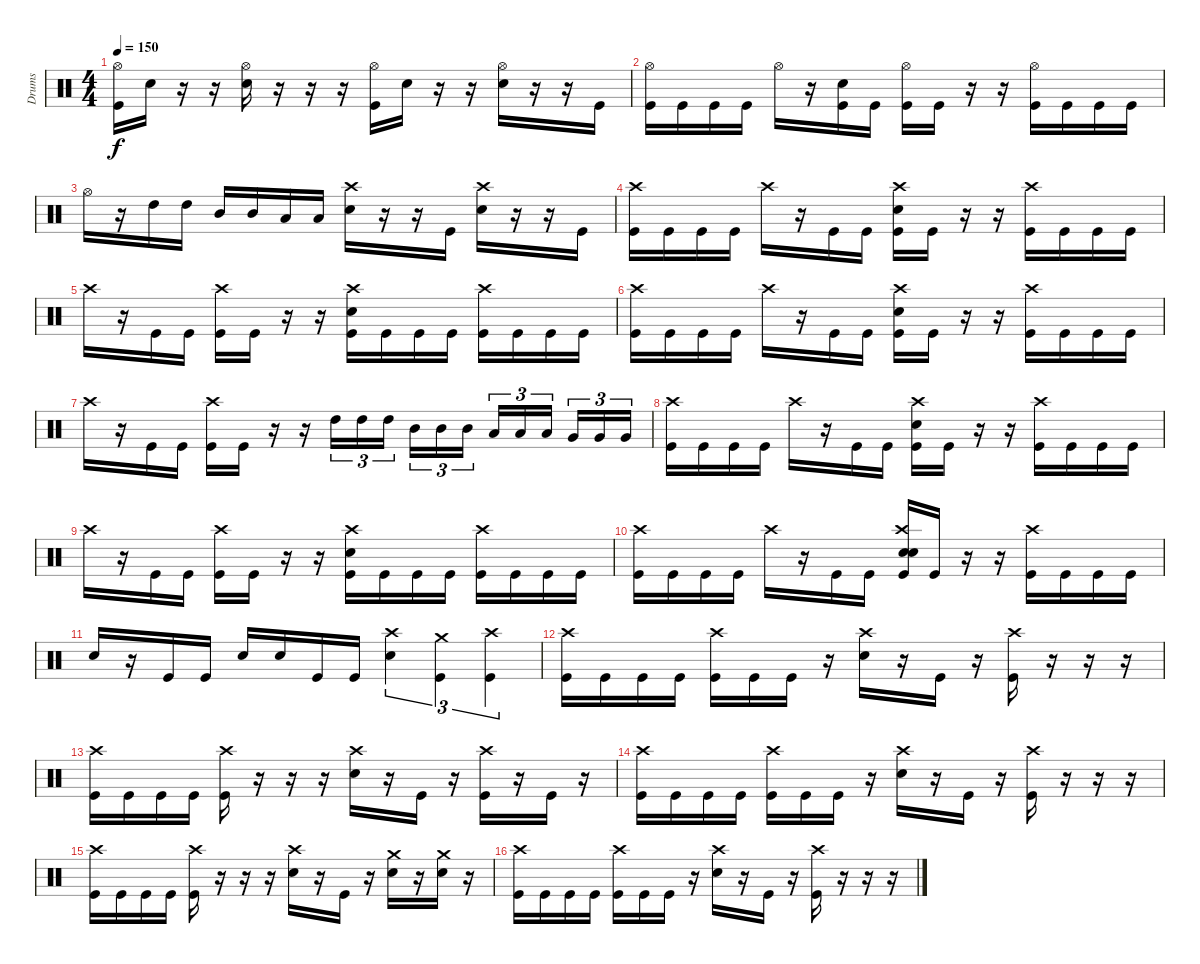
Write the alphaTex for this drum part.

\track ("Drums" "Drums") {instrument percussion}
\staff {score}
\articulation defaults
\ts (4 4)
\tempo 150
\clef neutral
\ks c
("Hi-Hat (open)" "Kick (hit)").16{dy f} "Electric Snare (hit)".16 r.16 r.16 ("Hi-Hat (open)" "Electric Snare (hit)").16 r.16 r.16 r.16 ("Hi-Hat (open)" "Kick (hit)").16 "Electric Snare (hit)".16 r.16 r.16 ("Hi-Hat (open)" "Electric Snare (hit)").16 r.16 r.16 "Kick (hit)".16 |
("Hi-Hat (open)" "Kick (hit)").16 "Kick (hit)".16 "Kick (hit)".16 "Kick (hit)".16 "Hi-Hat (open)".16 r.16 ("Electric Snare (hit)" "Kick (hit)").16 "Kick (hit)".16 ("Hi-Hat (open)" "Kick (hit)").16 "Kick (hit)".16 r.16 r.16 ("Hi-Hat (open)" "Kick (hit)").16 "Kick (hit)".16 "Kick (hit)".16 "Kick (hit)".16 |
"Hi-Hat (open)".16 r.16 "High Tom (hit)".16 "High Tom (hit)".16 "Mid Tom (hit)".16 "Mid Tom (hit)".16 "Low Tom (hit)".16 "Low Tom (hit)".16 ("Crash high (hit)" "Electric Snare (hit)").16 r.16 r.16 "Kick (hit)".16 ("Crash high (hit)" "Electric Snare (hit)").16 r.16 r.16 "Kick (hit)".16 |
("Crash high (hit)" "Kick (hit)").16 "Kick (hit)".16 "Kick (hit)".16 "Kick (hit)".16 "Crash high (hit)".16 r.16 "Kick (hit)".16 "Kick (hit)".16 ("Crash high (hit)" "Electric Snare (hit)" "Kick (hit)").16 "Kick (hit)".16 r.16 r.16 ("Crash high (hit)" "Kick (hit)").16 "Kick (hit)".16 "Kick (hit)".16 "Kick (hit)".16 |
"Crash high (hit)".16 r.16 "Kick (hit)".16 "Kick (hit)".16 ("Crash high (hit)" "Kick (hit)").16 "Kick (hit)".16 r.16 r.16 ("Crash high (hit)" "Electric Snare (hit)" "Kick (hit)").16 "Kick (hit)".16 "Kick (hit)".16 "Kick (hit)".16 ("Crash high (hit)" "Kick (hit)").16 "Kick (hit)".16 "Kick (hit)".16 "Kick (hit)".16 |
("Crash high (hit)" "Kick (hit)").16 "Kick (hit)".16 "Kick (hit)".16 "Kick (hit)".16 "Crash high (hit)".16 r.16 "Kick (hit)".16 "Kick (hit)".16 ("Crash high (hit)" "Electric Snare (hit)" "Kick (hit)").16 "Kick (hit)".16 r.16 r.16 ("Crash high (hit)" "Kick (hit)").16 "Kick (hit)".16 "Kick (hit)".16 "Kick (hit)".16 |
"Crash high (hit)".16 r.16 "Kick (hit)".16 "Kick (hit)".16 ("Crash high (hit)" "Kick (hit)").16 "Kick (hit)".16 r.16 r.16 "High Tom (hit)".16{tu (3 2)} "High Tom (hit)".16{tu (3 2)} "High Tom (hit)".16{tu (3 2)} "Mid Tom (hit)".16{tu (3 2)} "Mid Tom (hit)".16{tu (3 2)} "Mid Tom (hit)".16{tu (3 2)} "Low Tom (hit)".16{tu (3 2)} "Low Tom (hit)".16{tu (3 2)} "Low Tom (hit)".16{tu (3 2)} "Very Low Tom (hit)".16{tu (3 2)} "Very Low Tom (hit)".16{tu (3 2)} "Very Low Tom (hit)".16{tu (3 2)} |
("Crash high (hit)" "Kick (hit)").16 "Kick (hit)".16 "Kick (hit)".16 "Kick (hit)".16 "Crash high (hit)".16 r.16 "Kick (hit)".16 "Kick (hit)".16 ("Crash high (hit)" "Electric Snare (hit)" "Kick (hit)").16 "Kick (hit)".16 r.16 r.16 ("Crash high (hit)" "Kick (hit)").16 "Kick (hit)".16 "Kick (hit)".16 "Kick (hit)".16 |
"Crash high (hit)".16 r.16 "Kick (hit)".16 "Kick (hit)".16 ("Crash high (hit)" "Kick (hit)").16 "Kick (hit)".16 r.16 r.16 ("Crash high (hit)" "Electric Snare (hit)" "Kick (hit)").16 "Kick (hit)".16 "Kick (hit)".16 "Kick (hit)".16 ("Crash high (hit)" "Kick (hit)").16 "Kick (hit)".16 "Kick (hit)".16 "Kick (hit)".16 |
("Crash high (hit)" "Kick (hit)").16 "Kick (hit)".16 "Kick (hit)".16 "Kick (hit)".16 "Crash high (hit)".16 r.16 "Kick (hit)".16 "Kick (hit)".16 ("Crash high (hit)" "Snare (hit) 2" "Electric Snare (hit)" "Kick (hit)").16 "Kick (hit)".16 r.16 r.16 ("Crash high (hit)" "Kick (hit)").16 "Kick (hit)".16 "Kick (hit)".16 "Kick (hit)".16 |
"Electric Snare (hit)".16 r.16 "Kick (hit)".16 "Kick (hit)".16 "Electric Snare (hit)".16 "Electric Snare (hit)".16 "Kick (hit)".16 "Kick (hit)".16 ("Crash high (hit)" "Electric Snare (hit)").4{tu (3 2)} ("Crash medium (hit)" "Kick (hit)").4{tu (3 2)} ("Crash high (hit)" "Kick (hit)").4{tu (3 2)} |
("Crash high (hit)" "Kick (hit)").16 "Kick (hit)".16 "Kick (hit)".16 "Kick (hit)".16 ("Crash high (hit)" "Kick (hit)").16 "Kick (hit)".16 "Kick (hit)".16 r.16 ("Crash high (hit)" "Electric Snare (hit)").16 r.16 "Kick (hit)".16 r.16 ("Crash high (hit)" "Kick (hit)").16 r.16 r.16 r.16 |
("Crash high (hit)" "Kick (hit)").16 "Kick (hit)".16 "Kick (hit)".16 "Kick (hit)".16 ("Crash high (hit)" "Kick (hit)").16 r.16 r.16 r.16 ("Crash high (hit)" "Electric Snare (hit)").16 r.16 "Kick (hit)".16 r.16 ("Crash high (hit)" "Kick (hit)").16 r.16 "Kick (hit)".16 r.16 |
("Crash high (hit)" "Kick (hit)").16 "Kick (hit)".16 "Kick (hit)".16 "Kick (hit)".16 ("Crash high (hit)" "Kick (hit)").16 "Kick (hit)".16 "Kick (hit)".16 r.16 ("Crash high (hit)" "Electric Snare (hit)").16 r.16 "Kick (hit)".16 r.16 ("Crash high (hit)" "Kick (hit)").16 r.16 r.16 r.16 |
("Crash high (hit)" "Kick (hit)").16 "Kick (hit)".16 "Kick (hit)".16 "Kick (hit)".16 ("Crash high (hit)" "Kick (hit)").16 r.16 r.16 r.16 ("Crash high (hit)" "Electric Snare (hit)").16 r.16 "Kick (hit)".16 r.16 ("Crash medium (hit)" "Electric Snare (hit)").16 r.16 ("Crash medium (hit)" "Electric Snare (hit)").16 r.16 |
("Crash high (hit)" "Kick (hit)").16 "Kick (hit)".16 "Kick (hit)".16 "Kick (hit)".16 ("Crash high (hit)" "Kick (hit)").16 "Kick (hit)".16 "Kick (hit)".16 r.16 ("Crash high (hit)" "Electric Snare (hit)").16 r.16 "Kick (hit)".16 r.16 ("Crash high (hit)" "Kick (hit)").16 r.16 r.16 r.16
